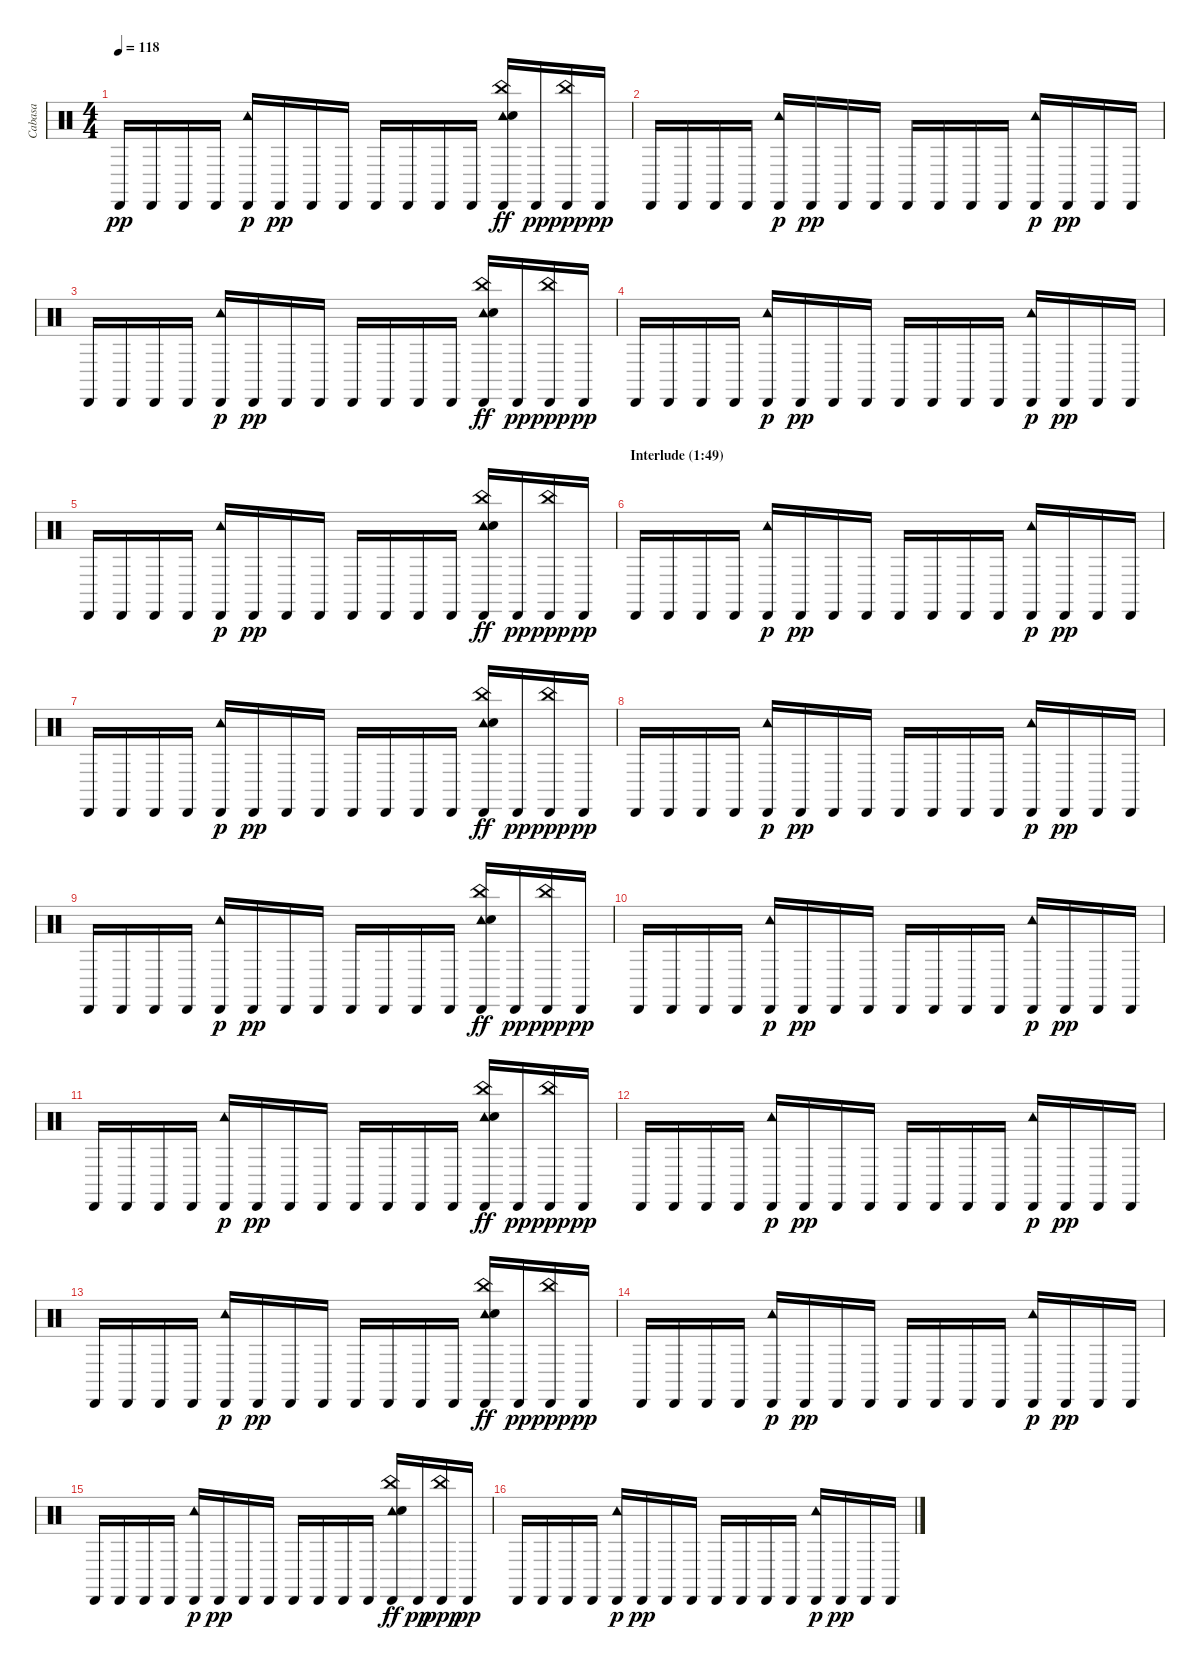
\track ("Cabasa" "Cabasa") {instrument percussion}
\staff {score}
\articulation defaults
\ts (4 4)
\tempo 118
\clef neutral
\ks c "Cabasa (hit)".16{dy pp} "Cabasa (hit)".16 "Cabasa (hit)".16 "Cabasa (hit)".16
("Cabasa (hit)" "Tambourine (hit)").16{dy p} "Cabasa (hit)".16{dy pp} "Cabasa (hit)".16 "Cabasa (hit)".16 "Cabasa (hit)".16 "Cabasa (hit)".16 "Cabasa (hit)".16 "Cabasa (hit)".16 ("Cabasa (hit)" "Tambourine (hit)" "Hand Clap (hit)" "China (hit)").16{dy ff} "Cabasa (hit)".16{dy pp} ("Cabasa (hit)" "China (hit)").16{dy ppp} "Cabasa (hit)".16{dy pp} |
"Cabasa (hit)".16 "Cabasa (hit)".16 "Cabasa (hit)".16 "Cabasa (hit)".16 ("Cabasa (hit)" "Tambourine (hit)").16{dy p} "Cabasa (hit)".16{dy pp} "Cabasa (hit)".16 "Cabasa (hit)".16 "Cabasa (hit)".16 "Cabasa (hit)".16 "Cabasa (hit)".16 "Cabasa (hit)".16 ("Cabasa (hit)" "Tambourine (hit)").16{dy p} "Cabasa (hit)".16{dy pp} "Cabasa (hit)".16 "Cabasa (hit)".16 |
"Cabasa (hit)".16 "Cabasa (hit)".16 "Cabasa (hit)".16 "Cabasa (hit)".16 ("Cabasa (hit)" "Tambourine (hit)").16{dy p} "Cabasa (hit)".16{dy pp} "Cabasa (hit)".16 "Cabasa (hit)".16 "Cabasa (hit)".16 "Cabasa (hit)".16 "Cabasa (hit)".16 "Cabasa (hit)".16 ("Cabasa (hit)" "Tambourine (hit)" "Hand Clap (hit)" "China (hit)").16{dy ff} "Cabasa (hit)".16{dy pp} ("Cabasa (hit)" "China (hit)").16{dy ppp} "Cabasa (hit)".16{dy pp} |
"Cabasa (hit)".16 "Cabasa (hit)".16 "Cabasa (hit)".16 "Cabasa (hit)".16 ("Cabasa (hit)" "Tambourine (hit)").16{dy p} "Cabasa (hit)".16{dy pp} "Cabasa (hit)".16 "Cabasa (hit)".16 "Cabasa (hit)".16 "Cabasa (hit)".16 "Cabasa (hit)".16 "Cabasa (hit)".16 ("Cabasa (hit)" "Tambourine (hit)").16{dy p} "Cabasa (hit)".16{dy pp} "Cabasa (hit)".16 "Cabasa (hit)".16 |
"Cabasa (hit)".16 "Cabasa (hit)".16 "Cabasa (hit)".16 "Cabasa (hit)".16 ("Cabasa (hit)" "Tambourine (hit)").16{dy p} "Cabasa (hit)".16{dy pp} "Cabasa (hit)".16 "Cabasa (hit)".16 "Cabasa (hit)".16 "Cabasa (hit)".16 "Cabasa (hit)".16 "Cabasa (hit)".16 ("Cabasa (hit)" "Tambourine (hit)" "Hand Clap (hit)" "China (hit)").16{dy ff} "Cabasa (hit)".16{dy pp} ("Cabasa (hit)" "China (hit)").16{dy ppp} "Cabasa (hit)".16{dy pp} |
\section ("" "Interlude (1:49)")
"Cabasa (hit)".16 "Cabasa (hit)".16 "Cabasa (hit)".16 "Cabasa (hit)".16 ("Cabasa (hit)" "Tambourine (hit)").16{dy p} "Cabasa (hit)".16{dy pp} "Cabasa (hit)".16 "Cabasa (hit)".16 "Cabasa (hit)".16 "Cabasa (hit)".16 "Cabasa (hit)".16 "Cabasa (hit)".16 ("Cabasa (hit)" "Tambourine (hit)").16{dy p} "Cabasa (hit)".16{dy pp} "Cabasa (hit)".16 "Cabasa (hit)".16 |
"Cabasa (hit)".16 "Cabasa (hit)".16 "Cabasa (hit)".16 "Cabasa (hit)".16 ("Cabasa (hit)" "Tambourine (hit)").16{dy p} "Cabasa (hit)".16{dy pp} "Cabasa (hit)".16 "Cabasa (hit)".16 "Cabasa (hit)".16 "Cabasa (hit)".16 "Cabasa (hit)".16 "Cabasa (hit)".16 ("Cabasa (hit)" "Tambourine (hit)" "Hand Clap (hit)" "China (hit)").16{dy ff} "Cabasa (hit)".16{dy pp} ("Cabasa (hit)" "China (hit)").16{dy ppp} "Cabasa (hit)".16{dy pp} |
"Cabasa (hit)".16 "Cabasa (hit)".16 "Cabasa (hit)".16 "Cabasa (hit)".16 ("Cabasa (hit)" "Tambourine (hit)").16{dy p} "Cabasa (hit)".16{dy pp} "Cabasa (hit)".16 "Cabasa (hit)".16 "Cabasa (hit)".16 "Cabasa (hit)".16 "Cabasa (hit)".16 "Cabasa (hit)".16 ("Cabasa (hit)" "Tambourine (hit)").16{dy p} "Cabasa (hit)".16{dy pp} "Cabasa (hit)".16 "Cabasa (hit)".16 |
"Cabasa (hit)".16 "Cabasa (hit)".16 "Cabasa (hit)".16 "Cabasa (hit)".16 ("Cabasa (hit)" "Tambourine (hit)").16{dy p} "Cabasa (hit)".16{dy pp} "Cabasa (hit)".16 "Cabasa (hit)".16 "Cabasa (hit)".16 "Cabasa (hit)".16 "Cabasa (hit)".16 "Cabasa (hit)".16 ("Cabasa (hit)" "Tambourine (hit)" "Hand Clap (hit)" "China (hit)").16{dy ff} "Cabasa (hit)".16{dy pp} ("Cabasa (hit)" "China (hit)").16{dy ppp} "Cabasa (hit)".16{dy pp} |
"Cabasa (hit)".16 "Cabasa (hit)".16 "Cabasa (hit)".16 "Cabasa (hit)".16 ("Cabasa (hit)" "Tambourine (hit)").16{dy p} "Cabasa (hit)".16{dy pp} "Cabasa (hit)".16 "Cabasa (hit)".16 "Cabasa (hit)".16 "Cabasa (hit)".16 "Cabasa (hit)".16 "Cabasa (hit)".16 ("Cabasa (hit)" "Tambourine (hit)").16{dy p} "Cabasa (hit)".16{dy pp} "Cabasa (hit)".16 "Cabasa (hit)".16 |
"Cabasa (hit)".16 "Cabasa (hit)".16 "Cabasa (hit)".16 "Cabasa (hit)".16 ("Cabasa (hit)" "Tambourine (hit)").16{dy p} "Cabasa (hit)".16{dy pp} "Cabasa (hit)".16 "Cabasa (hit)".16 "Cabasa (hit)".16 "Cabasa (hit)".16 "Cabasa (hit)".16 "Cabasa (hit)".16 ("Cabasa (hit)" "Tambourine (hit)" "Hand Clap (hit)" "China (hit)").16{dy ff} "Cabasa (hit)".16{dy pp} ("Cabasa (hit)" "China (hit)").16{dy ppp} "Cabasa (hit)".16{dy pp} |
"Cabasa (hit)".16 "Cabasa (hit)".16 "Cabasa (hit)".16 "Cabasa (hit)".16 ("Cabasa (hit)" "Tambourine (hit)").16{dy p} "Cabasa (hit)".16{dy pp} "Cabasa (hit)".16 "Cabasa (hit)".16 "Cabasa (hit)".16 "Cabasa (hit)".16 "Cabasa (hit)".16 "Cabasa (hit)".16 ("Cabasa (hit)" "Tambourine (hit)").16{dy p} "Cabasa (hit)".16{dy pp} "Cabasa (hit)".16 "Cabasa (hit)".16 |
"Cabasa (hit)".16 "Cabasa (hit)".16 "Cabasa (hit)".16 "Cabasa (hit)".16 ("Cabasa (hit)" "Tambourine (hit)").16{dy p} "Cabasa (hit)".16{dy pp} "Cabasa (hit)".16 "Cabasa (hit)".16 "Cabasa (hit)".16 "Cabasa (hit)".16 "Cabasa (hit)".16 "Cabasa (hit)".16 ("Cabasa (hit)" "Tambourine (hit)" "Hand Clap (hit)" "China (hit)").16{dy ff} "Cabasa (hit)".16{dy pp} ("Cabasa (hit)" "China (hit)").16{dy ppp} "Cabasa (hit)".16{dy pp} |
"Cabasa (hit)".16 "Cabasa (hit)".16 "Cabasa (hit)".16 "Cabasa (hit)".16 ("Cabasa (hit)" "Tambourine (hit)").16{dy p} "Cabasa (hit)".16{dy pp} "Cabasa (hit)".16 "Cabasa (hit)".16 "Cabasa (hit)".16 "Cabasa (hit)".16 "Cabasa (hit)".16 "Cabasa (hit)".16 ("Cabasa (hit)" "Tambourine (hit)").16{dy p} "Cabasa (hit)".16{dy pp} "Cabasa (hit)".16 "Cabasa (hit)".16 |
"Cabasa (hit)".16 "Cabasa (hit)".16 "Cabasa (hit)".16 "Cabasa (hit)".16 ("Cabasa (hit)" "Tambourine (hit)").16{dy p} "Cabasa (hit)".16{dy pp} "Cabasa (hit)".16 "Cabasa (hit)".16 "Cabasa (hit)".16 "Cabasa (hit)".16 "Cabasa (hit)".16 "Cabasa (hit)".16 ("Cabasa (hit)" "Tambourine (hit)" "Hand Clap (hit)" "China (hit)").16{dy ff} "Cabasa (hit)".16{dy pp} ("Cabasa (hit)" "China (hit)").16{dy ppp} "Cabasa (hit)".16{dy pp} |
"Cabasa (hit)".16 "Cabasa (hit)".16 "Cabasa (hit)".16 "Cabasa (hit)".16 ("Cabasa (hit)" "Tambourine (hit)").16{dy p} "Cabasa (hit)".16{dy pp} "Cabasa (hit)".16 "Cabasa (hit)".16 "Cabasa (hit)".16 "Cabasa (hit)".16 "Cabasa (hit)".16 "Cabasa (hit)".16 ("Cabasa (hit)" "Tambourine (hit)").16{dy p} "Cabasa (hit)".16{dy pp} "Cabasa (hit)".16 "Cabasa (hit)".16
